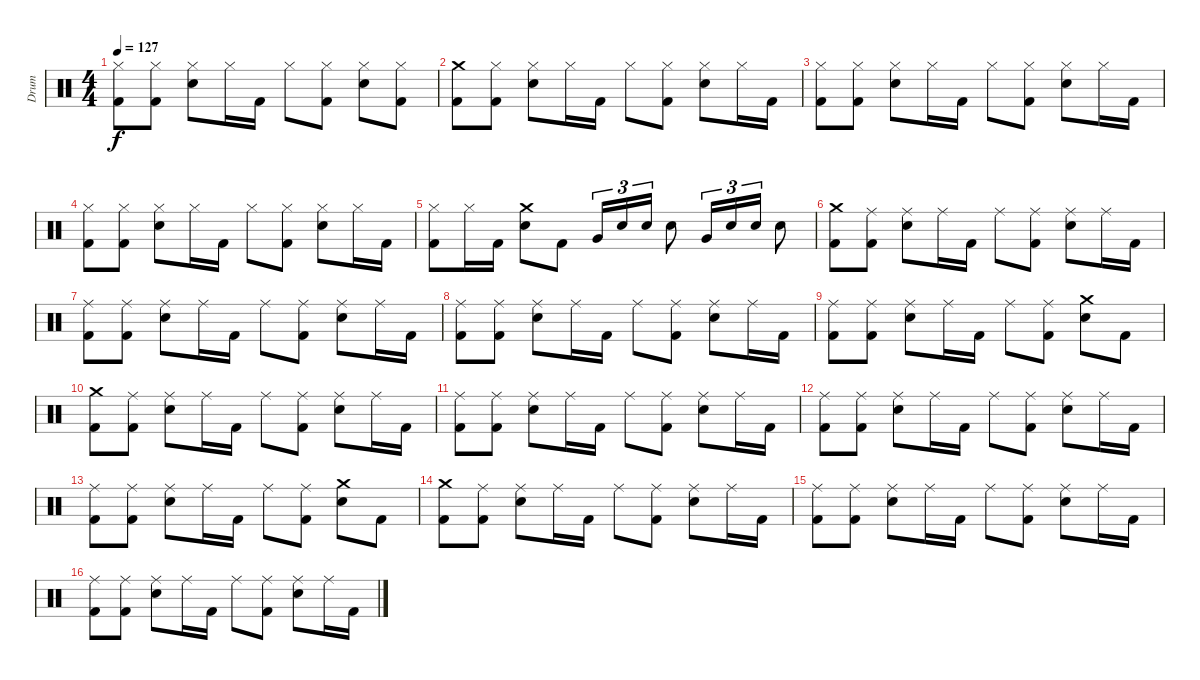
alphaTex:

\track ("Drum" "Drum") {instrument percussion}
\staff {score}
\articulation defaults
\ts (4 4)
\tempo 127
\clef neutral
\ks c
("Kick (hit) 2" "Hi-Hat (closed)").8{dy f} ("Hi-Hat (closed)" "Kick (hit) 2").8 ("Hi-Hat (closed)" "Snare (hit) 2").8 "Hi-Hat (closed)".16 "Kick (hit) 2".16 "Hi-Hat (closed)".8 ("Hi-Hat (closed)" "Kick (hit) 2").8 ("Hi-Hat (closed)" "Snare (hit) 2").8 ("Hi-Hat (closed)" "Kick (hit) 2").8 |
("Crash medium (hit)" "Kick (hit) 2").8 ("Hi-Hat (closed)" "Kick (hit) 2").8 ("Hi-Hat (closed)" "Snare (hit) 2").8 "Hi-Hat (closed)".16 "Kick (hit) 2".16 "Hi-Hat (closed)".8 ("Hi-Hat (closed)" "Kick (hit) 2").8 ("Hi-Hat (closed)" "Snare (hit) 2").8 "Hi-Hat (closed)".16 "Kick (hit) 2".16 |
("Kick (hit) 2" "Hi-Hat (closed)").8 ("Hi-Hat (closed)" "Kick (hit) 2").8 ("Hi-Hat (closed)" "Snare (hit) 2").8 "Hi-Hat (closed)".16 "Kick (hit) 2".16 "Hi-Hat (closed)".8 ("Hi-Hat (closed)" "Kick (hit) 2").8 ("Hi-Hat (closed)" "Snare (hit) 2").8 "Hi-Hat (closed)".16 "Kick (hit) 2".16 |
("Kick (hit) 2" "Hi-Hat (closed)").8 ("Hi-Hat (closed)" "Kick (hit) 2").8 ("Hi-Hat (closed)" "Snare (hit) 2").8 "Hi-Hat (closed)".16 "Kick (hit) 2".16 "Hi-Hat (closed)".8 ("Hi-Hat (closed)" "Kick (hit) 2").8 ("Hi-Hat (closed)" "Snare (hit) 2").8 "Hi-Hat (closed)".16 "Kick (hit) 2".16 |
("Hi-Hat (closed)" "Kick (hit) 2").8 "Hi-Hat (closed)".16 "Kick (hit) 2".16 ("Crash medium (hit)" "Snare (hit) 2").8 "Kick (hit) 2".8 "Very Low Tom (hit)".16{tu (3 2)} "Snare (hit) 2".16{tu (3 2)} "Snare (hit) 2".16{tu (3 2)} "Snare (hit) 2".8 "Very Low Tom (hit)".16{tu (3 2)} "Snare (hit) 2".16{tu (3 2)} "Snare (hit) 2".16{tu (3 2)} "Snare (hit) 2".8 |
("Crash medium (hit)" "Kick (hit) 2").8 ("Ride (middle)" "Kick (hit) 2").8 ("Ride (middle)" "Snare (hit) 2").8 "Ride (middle)".16 "Kick (hit) 2".16 "Ride (middle)".8 ("Ride (middle)" "Kick (hit) 2").8 ("Ride (middle)" "Snare (hit) 2").8 "Ride (middle)".16 "Kick (hit) 2".16 |
("Kick (hit) 2" "Ride (middle)").8 ("Ride (middle)" "Kick (hit) 2").8 ("Ride (middle)" "Snare (hit) 2").8 "Ride (middle)".16 "Kick (hit) 2".16 "Ride (middle)".8 ("Ride (middle)" "Kick (hit) 2").8 ("Ride (middle)" "Snare (hit) 2").8 "Ride (middle)".16 "Kick (hit) 2".16 |
("Kick (hit) 2" "Ride (middle)").8 ("Ride (middle)" "Kick (hit) 2").8 ("Ride (middle)" "Snare (hit) 2").8 "Ride (middle)".16 "Kick (hit) 2".16 "Ride (middle)".8 ("Ride (middle)" "Kick (hit) 2").8 ("Ride (middle)" "Snare (hit) 2").8 "Ride (middle)".16 "Kick (hit) 2".16 |
("Kick (hit) 2" "Ride (middle)").8 ("Ride (middle)" "Kick (hit) 2").8 ("Ride (middle)" "Snare (hit) 2").8 "Ride (middle)".16 "Kick (hit) 2".16 "Ride (middle)".8 ("Ride (middle)" "Kick (hit) 2").8 ("Crash medium (hit)" "Snare (hit) 2").8 "Kick (hit) 2".8 |
("Crash medium (hit)" "Kick (hit) 2").8 ("Ride (middle)" "Kick (hit) 2").8 ("Ride (middle)" "Snare (hit) 2").8 "Ride (middle)".16 "Kick (hit) 2".16 "Ride (middle)".8 ("Ride (middle)" "Kick (hit) 2").8 ("Ride (middle)" "Snare (hit) 2").8 "Ride (middle)".16 "Kick (hit) 2".16 |
("Kick (hit) 2" "Ride (middle)").8 ("Ride (middle)" "Kick (hit) 2").8 ("Ride (middle)" "Snare (hit) 2").8 "Ride (middle)".16 "Kick (hit) 2".16 "Ride (middle)".8 ("Ride (middle)" "Kick (hit) 2").8 ("Ride (middle)" "Snare (hit) 2").8 "Ride (middle)".16 "Kick (hit) 2".16 |
("Kick (hit) 2" "Ride (middle)").8 ("Ride (middle)" "Kick (hit) 2").8 ("Ride (middle)" "Snare (hit) 2").8 "Ride (middle)".16 "Kick (hit) 2".16 "Ride (middle)".8 ("Ride (middle)" "Kick (hit) 2").8 ("Ride (middle)" "Snare (hit) 2").8 "Ride (middle)".16 "Kick (hit) 2".16 |
("Kick (hit) 2" "Ride (middle)").8 ("Ride (middle)" "Kick (hit) 2").8 ("Ride (middle)" "Snare (hit) 2").8 "Ride (middle)".16 "Kick (hit) 2".16 "Ride (middle)".8 ("Ride (middle)" "Kick (hit) 2").8 ("Crash medium (hit)" "Snare (hit) 2").8 "Kick (hit) 2".8 |
("Crash medium (hit)" "Kick (hit) 2").8 ("Ride (middle)" "Kick (hit) 2").8 ("Ride (middle)" "Snare (hit) 2").8 "Ride (middle)".16 "Kick (hit) 2".16 "Ride (middle)".8 ("Ride (middle)" "Kick (hit) 2").8 ("Ride (middle)" "Snare (hit) 2").8 "Ride (middle)".16 "Kick (hit) 2".16 |
("Kick (hit) 2" "Ride (middle)").8 ("Ride (middle)" "Kick (hit) 2").8 ("Ride (middle)" "Snare (hit) 2").8 "Ride (middle)".16 "Kick (hit) 2".16 "Ride (middle)".8 ("Ride (middle)" "Kick (hit) 2").8 ("Ride (middle)" "Snare (hit) 2").8 "Ride (middle)".16 "Kick (hit) 2".16 |
("Kick (hit) 2" "Ride (middle)").8 ("Ride (middle)" "Kick (hit) 2").8 ("Ride (middle)" "Snare (hit) 2").8 "Ride (middle)".16 "Kick (hit) 2".16 "Ride (middle)".8 ("Ride (middle)" "Kick (hit) 2").8 ("Ride (middle)" "Snare (hit) 2").8 "Ride (middle)".16 "Kick (hit) 2".16
